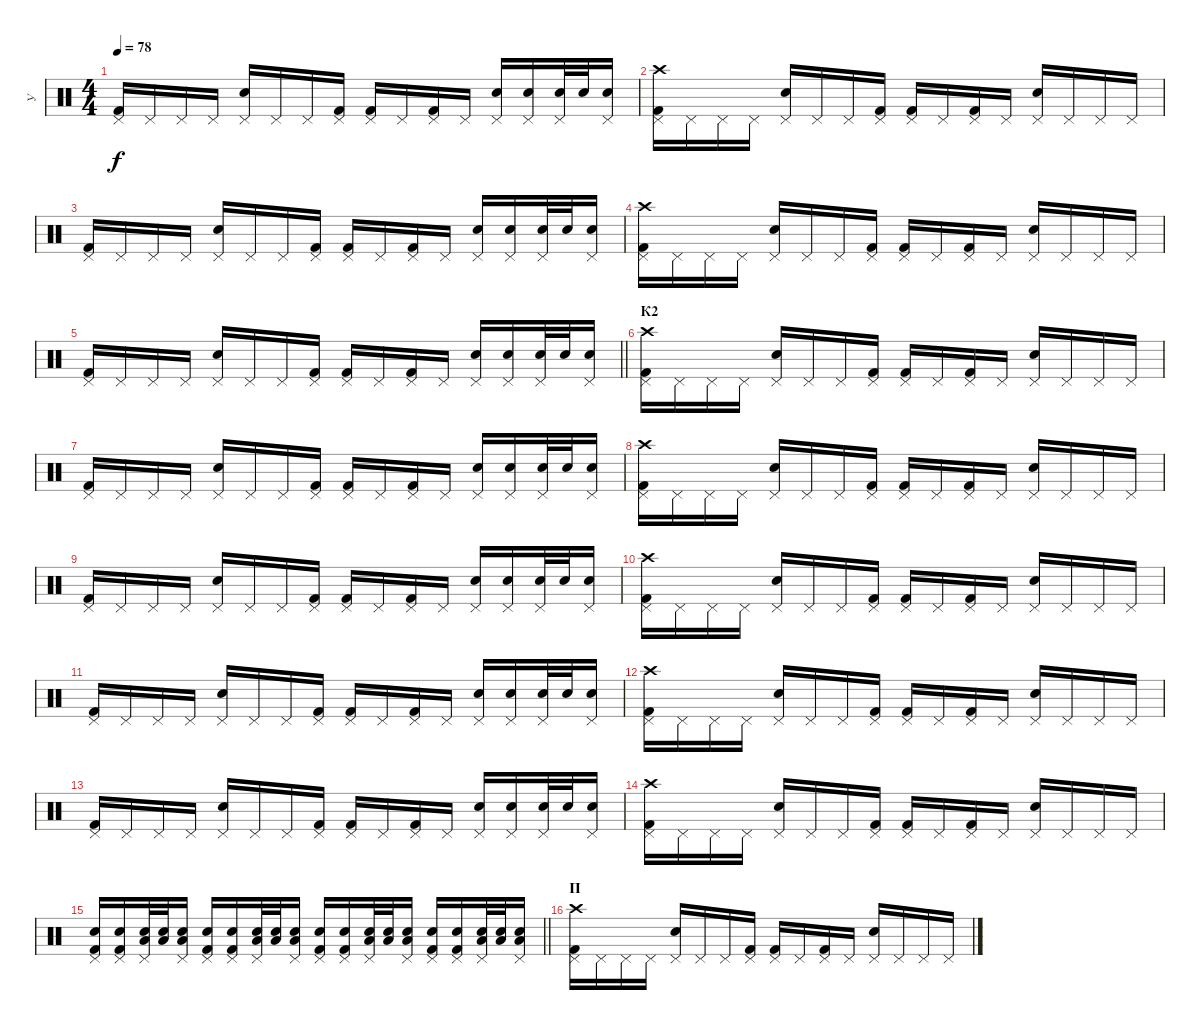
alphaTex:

\track ("У" "У") {instrument percussion}
\staff {score}
\articulation defaults
\ts (4 4)
\tempo 78
\clef neutral
\ks c
("Kick (hit) 2" "Pedal Hi-Hat (hit)").16{dy f} "Pedal Hi-Hat (hit)".16 "Pedal Hi-Hat (hit)".16 "Pedal Hi-Hat (hit)".16 ("Electric Snare (hit)" "Pedal Hi-Hat (hit)").16 "Pedal Hi-Hat (hit)".16 "Pedal Hi-Hat (hit)".16 ("Kick (hit) 2" "Pedal Hi-Hat (hit)").16 ("Kick (hit) 2" "Pedal Hi-Hat (hit)").16 "Pedal Hi-Hat (hit)".16 ("Kick (hit) 2" "Pedal Hi-Hat (hit)").16 "Pedal Hi-Hat (hit)".16 ("Electric Snare (hit)" "Pedal Hi-Hat (hit)").16 ("Electric Snare (hit)" "Pedal Hi-Hat (hit)").16 ("Electric Snare (hit)" "Pedal Hi-Hat (hit)").32 "Electric Snare (hit)".32 ("Electric Snare (hit)" "Pedal Hi-Hat (hit)").16 |
("Crash high (hit)" "Kick (hit) 2" "Pedal Hi-Hat (hit)").16 "Pedal Hi-Hat (hit)".16 "Pedal Hi-Hat (hit)".16 "Pedal Hi-Hat (hit)".16 ("Electric Snare (hit)" "Pedal Hi-Hat (hit)").16 "Pedal Hi-Hat (hit)".16 "Pedal Hi-Hat (hit)".16 ("Kick (hit) 2" "Pedal Hi-Hat (hit)").16 ("Kick (hit) 2" "Pedal Hi-Hat (hit)").16 "Pedal Hi-Hat (hit)".16 ("Kick (hit) 2" "Pedal Hi-Hat (hit)").16 "Pedal Hi-Hat (hit)".16 ("Electric Snare (hit)" "Pedal Hi-Hat (hit)").16 "Pedal Hi-Hat (hit)".16 "Pedal Hi-Hat (hit)".16 "Pedal Hi-Hat (hit)".16 |
("Kick (hit) 2" "Pedal Hi-Hat (hit)").16 "Pedal Hi-Hat (hit)".16 "Pedal Hi-Hat (hit)".16 "Pedal Hi-Hat (hit)".16 ("Electric Snare (hit)" "Pedal Hi-Hat (hit)").16 "Pedal Hi-Hat (hit)".16 "Pedal Hi-Hat (hit)".16 ("Kick (hit) 2" "Pedal Hi-Hat (hit)").16 ("Kick (hit) 2" "Pedal Hi-Hat (hit)").16 "Pedal Hi-Hat (hit)".16 ("Kick (hit) 2" "Pedal Hi-Hat (hit)").16 "Pedal Hi-Hat (hit)".16 ("Electric Snare (hit)" "Pedal Hi-Hat (hit)").16 ("Electric Snare (hit)" "Pedal Hi-Hat (hit)").16 ("Electric Snare (hit)" "Pedal Hi-Hat (hit)").32 "Electric Snare (hit)".32 ("Electric Snare (hit)" "Pedal Hi-Hat (hit)").16 |
("Crash high (hit)" "Kick (hit) 2" "Pedal Hi-Hat (hit)").16 "Pedal Hi-Hat (hit)".16 "Pedal Hi-Hat (hit)".16 "Pedal Hi-Hat (hit)".16 ("Electric Snare (hit)" "Pedal Hi-Hat (hit)").16 "Pedal Hi-Hat (hit)".16 "Pedal Hi-Hat (hit)".16 ("Kick (hit) 2" "Pedal Hi-Hat (hit)").16 ("Kick (hit) 2" "Pedal Hi-Hat (hit)").16 "Pedal Hi-Hat (hit)".16 ("Kick (hit) 2" "Pedal Hi-Hat (hit)").16 "Pedal Hi-Hat (hit)".16 ("Electric Snare (hit)" "Pedal Hi-Hat (hit)").16 "Pedal Hi-Hat (hit)".16 "Pedal Hi-Hat (hit)".16 "Pedal Hi-Hat (hit)".16 |
\barLineRight lightlight
("Kick (hit) 2" "Pedal Hi-Hat (hit)").16 "Pedal Hi-Hat (hit)".16 "Pedal Hi-Hat (hit)".16 "Pedal Hi-Hat (hit)".16 ("Electric Snare (hit)" "Pedal Hi-Hat (hit)").16 "Pedal Hi-Hat (hit)".16 "Pedal Hi-Hat (hit)".16 ("Kick (hit) 2" "Pedal Hi-Hat (hit)").16 ("Kick (hit) 2" "Pedal Hi-Hat (hit)").16 "Pedal Hi-Hat (hit)".16 ("Kick (hit) 2" "Pedal Hi-Hat (hit)").16 "Pedal Hi-Hat (hit)".16 ("Electric Snare (hit)" "Pedal Hi-Hat (hit)").16 ("Electric Snare (hit)" "Pedal Hi-Hat (hit)").16 ("Electric Snare (hit)" "Pedal Hi-Hat (hit)").32 "Electric Snare (hit)".32 ("Electric Snare (hit)" "Pedal Hi-Hat (hit)").16 |
\section ("" "К2")
("Crash high (hit)" "Kick (hit) 2" "Pedal Hi-Hat (hit)").16 "Pedal Hi-Hat (hit)".16 "Pedal Hi-Hat (hit)".16 "Pedal Hi-Hat (hit)".16 ("Electric Snare (hit)" "Pedal Hi-Hat (hit)").16 "Pedal Hi-Hat (hit)".16 "Pedal Hi-Hat (hit)".16 ("Kick (hit) 2" "Pedal Hi-Hat (hit)").16 ("Kick (hit) 2" "Pedal Hi-Hat (hit)").16 "Pedal Hi-Hat (hit)".16 ("Kick (hit) 2" "Pedal Hi-Hat (hit)").16 "Pedal Hi-Hat (hit)".16 ("Electric Snare (hit)" "Pedal Hi-Hat (hit)").16 "Pedal Hi-Hat (hit)".16 "Pedal Hi-Hat (hit)".16 "Pedal Hi-Hat (hit)".16 |
("Kick (hit) 2" "Pedal Hi-Hat (hit)").16 "Pedal Hi-Hat (hit)".16 "Pedal Hi-Hat (hit)".16 "Pedal Hi-Hat (hit)".16 ("Electric Snare (hit)" "Pedal Hi-Hat (hit)").16 "Pedal Hi-Hat (hit)".16 "Pedal Hi-Hat (hit)".16 ("Kick (hit) 2" "Pedal Hi-Hat (hit)").16 ("Kick (hit) 2" "Pedal Hi-Hat (hit)").16 "Pedal Hi-Hat (hit)".16 ("Kick (hit) 2" "Pedal Hi-Hat (hit)").16 "Pedal Hi-Hat (hit)".16 ("Electric Snare (hit)" "Pedal Hi-Hat (hit)").16 ("Electric Snare (hit)" "Pedal Hi-Hat (hit)").16 ("Electric Snare (hit)" "Pedal Hi-Hat (hit)").32 "Electric Snare (hit)".32 ("Electric Snare (hit)" "Pedal Hi-Hat (hit)").16 |
("Crash high (hit)" "Kick (hit) 2" "Pedal Hi-Hat (hit)").16 "Pedal Hi-Hat (hit)".16 "Pedal Hi-Hat (hit)".16 "Pedal Hi-Hat (hit)".16 ("Electric Snare (hit)" "Pedal Hi-Hat (hit)").16 "Pedal Hi-Hat (hit)".16 "Pedal Hi-Hat (hit)".16 ("Kick (hit) 2" "Pedal Hi-Hat (hit)").16 ("Kick (hit) 2" "Pedal Hi-Hat (hit)").16 "Pedal Hi-Hat (hit)".16 ("Kick (hit) 2" "Pedal Hi-Hat (hit)").16 "Pedal Hi-Hat (hit)".16 ("Electric Snare (hit)" "Pedal Hi-Hat (hit)").16 "Pedal Hi-Hat (hit)".16 "Pedal Hi-Hat (hit)".16 "Pedal Hi-Hat (hit)".16 |
("Kick (hit) 2" "Pedal Hi-Hat (hit)").16 "Pedal Hi-Hat (hit)".16 "Pedal Hi-Hat (hit)".16 "Pedal Hi-Hat (hit)".16 ("Electric Snare (hit)" "Pedal Hi-Hat (hit)").16 "Pedal Hi-Hat (hit)".16 "Pedal Hi-Hat (hit)".16 ("Kick (hit) 2" "Pedal Hi-Hat (hit)").16 ("Kick (hit) 2" "Pedal Hi-Hat (hit)").16 "Pedal Hi-Hat (hit)".16 ("Kick (hit) 2" "Pedal Hi-Hat (hit)").16 "Pedal Hi-Hat (hit)".16 ("Electric Snare (hit)" "Pedal Hi-Hat (hit)").16 ("Electric Snare (hit)" "Pedal Hi-Hat (hit)").16 ("Electric Snare (hit)" "Pedal Hi-Hat (hit)").32 "Electric Snare (hit)".32 ("Electric Snare (hit)" "Pedal Hi-Hat (hit)").16 |
("Crash high (hit)" "Kick (hit) 2" "Pedal Hi-Hat (hit)").16 "Pedal Hi-Hat (hit)".16 "Pedal Hi-Hat (hit)".16 "Pedal Hi-Hat (hit)".16 ("Electric Snare (hit)" "Pedal Hi-Hat (hit)").16 "Pedal Hi-Hat (hit)".16 "Pedal Hi-Hat (hit)".16 ("Kick (hit) 2" "Pedal Hi-Hat (hit)").16 ("Kick (hit) 2" "Pedal Hi-Hat (hit)").16 "Pedal Hi-Hat (hit)".16 ("Kick (hit) 2" "Pedal Hi-Hat (hit)").16 "Pedal Hi-Hat (hit)".16 ("Electric Snare (hit)" "Pedal Hi-Hat (hit)").16 "Pedal Hi-Hat (hit)".16 "Pedal Hi-Hat (hit)".16 "Pedal Hi-Hat (hit)".16 |
("Kick (hit) 2" "Pedal Hi-Hat (hit)").16 "Pedal Hi-Hat (hit)".16 "Pedal Hi-Hat (hit)".16 "Pedal Hi-Hat (hit)".16 ("Electric Snare (hit)" "Pedal Hi-Hat (hit)").16 "Pedal Hi-Hat (hit)".16 "Pedal Hi-Hat (hit)".16 ("Kick (hit) 2" "Pedal Hi-Hat (hit)").16 ("Kick (hit) 2" "Pedal Hi-Hat (hit)").16 "Pedal Hi-Hat (hit)".16 ("Kick (hit) 2" "Pedal Hi-Hat (hit)").16 "Pedal Hi-Hat (hit)".16 ("Electric Snare (hit)" "Pedal Hi-Hat (hit)").16 ("Electric Snare (hit)" "Pedal Hi-Hat (hit)").16 ("Electric Snare (hit)" "Pedal Hi-Hat (hit)").32 "Electric Snare (hit)".32 ("Electric Snare (hit)" "Pedal Hi-Hat (hit)").16 |
("Crash high (hit)" "Kick (hit) 2" "Pedal Hi-Hat (hit)").16 "Pedal Hi-Hat (hit)".16 "Pedal Hi-Hat (hit)".16 "Pedal Hi-Hat (hit)".16 ("Electric Snare (hit)" "Pedal Hi-Hat (hit)").16 "Pedal Hi-Hat (hit)".16 "Pedal Hi-Hat (hit)".16 ("Kick (hit) 2" "Pedal Hi-Hat (hit)").16 ("Kick (hit) 2" "Pedal Hi-Hat (hit)").16 "Pedal Hi-Hat (hit)".16 ("Kick (hit) 2" "Pedal Hi-Hat (hit)").16 "Pedal Hi-Hat (hit)".16 ("Electric Snare (hit)" "Pedal Hi-Hat (hit)").16 "Pedal Hi-Hat (hit)".16 "Pedal Hi-Hat (hit)".16 "Pedal Hi-Hat (hit)".16 |
("Kick (hit) 2" "Pedal Hi-Hat (hit)").16 "Pedal Hi-Hat (hit)".16 "Pedal Hi-Hat (hit)".16 "Pedal Hi-Hat (hit)".16 ("Electric Snare (hit)" "Pedal Hi-Hat (hit)").16 "Pedal Hi-Hat (hit)".16 "Pedal Hi-Hat (hit)".16 ("Kick (hit) 2" "Pedal Hi-Hat (hit)").16 ("Kick (hit) 2" "Pedal Hi-Hat (hit)").16 "Pedal Hi-Hat (hit)".16 ("Kick (hit) 2" "Pedal Hi-Hat (hit)").16 "Pedal Hi-Hat (hit)".16 ("Electric Snare (hit)" "Pedal Hi-Hat (hit)").16 ("Electric Snare (hit)" "Pedal Hi-Hat (hit)").16 ("Electric Snare (hit)" "Pedal Hi-Hat (hit)").32 "Electric Snare (hit)".32 ("Electric Snare (hit)" "Pedal Hi-Hat (hit)").16 |
("Crash high (hit)" "Kick (hit) 2" "Pedal Hi-Hat (hit)").16 "Pedal Hi-Hat (hit)".16 "Pedal Hi-Hat (hit)".16 "Pedal Hi-Hat (hit)".16 ("Electric Snare (hit)" "Pedal Hi-Hat (hit)").16 "Pedal Hi-Hat (hit)".16 "Pedal Hi-Hat (hit)".16 ("Kick (hit) 2" "Pedal Hi-Hat (hit)").16 ("Kick (hit) 2" "Pedal Hi-Hat (hit)").16 "Pedal Hi-Hat (hit)".16 ("Kick (hit) 2" "Pedal Hi-Hat (hit)").16 "Pedal Hi-Hat (hit)".16 ("Electric Snare (hit)" "Pedal Hi-Hat (hit)").16 "Pedal Hi-Hat (hit)".16 "Pedal Hi-Hat (hit)".16 "Pedal Hi-Hat (hit)".16 |
\barLineRight lightlight
("Electric Snare (hit)" "Kick (hit) 2" "Pedal Hi-Hat (hit)").16 ("Electric Snare (hit)" "Kick (hit) 2" "Pedal Hi-Hat (hit)").16 ("Electric Snare (hit)" "Low Tom (hit)" "Pedal Hi-Hat (hit)").32 ("Electric Snare (hit)" "Low Tom (hit)").32 ("Electric Snare (hit)" "Low Tom (hit)" "Pedal Hi-Hat (hit)").16 ("Electric Snare (hit)" "Kick (hit) 2" "Pedal Hi-Hat (hit)").16 ("Electric Snare (hit)" "Kick (hit) 2" "Pedal Hi-Hat (hit)").16 ("Electric Snare (hit)" "Low Tom (hit)" "Pedal Hi-Hat (hit)").32 ("Electric Snare (hit)" "Low Tom (hit)").32 ("Electric Snare (hit)" "Low Tom (hit)" "Pedal Hi-Hat (hit)").16 ("Electric Snare (hit)" "Kick (hit) 2" "Pedal Hi-Hat (hit)").16 ("Electric Snare (hit)" "Kick (hit) 2" "Pedal Hi-Hat (hit)").16 ("Electric Snare (hit)" "Low Tom (hit)" "Pedal Hi-Hat (hit)").32 ("Electric Snare (hit)" "Low Tom (hit)").32 ("Electric Snare (hit)" "Low Tom (hit)" "Pedal Hi-Hat (hit)").16 ("Electric Snare (hit)" "Kick (hit) 2" "Pedal Hi-Hat (hit)").16 ("Electric Snare (hit)" "Kick (hit) 2" "Pedal Hi-Hat (hit)").16 ("Electric Snare (hit)" "Low Tom (hit)" "Pedal Hi-Hat (hit)").32 ("Electric Snare (hit)" "Low Tom (hit)").32 ("Electric Snare (hit)" "Low Tom (hit)" "Pedal Hi-Hat (hit)").16 |
\section ("" "П")
("Crash high (hit)" "Kick (hit) 2" "Pedal Hi-Hat (hit)").16 "Pedal Hi-Hat (hit)".16 "Pedal Hi-Hat (hit)".16 "Pedal Hi-Hat (hit)".16 ("Electric Snare (hit)" "Pedal Hi-Hat (hit)").16 "Pedal Hi-Hat (hit)".16 "Pedal Hi-Hat (hit)".16 ("Kick (hit) 2" "Pedal Hi-Hat (hit)").16 ("Kick (hit) 2" "Pedal Hi-Hat (hit)").16 "Pedal Hi-Hat (hit)".16 ("Kick (hit) 2" "Pedal Hi-Hat (hit)").16 "Pedal Hi-Hat (hit)".16 ("Electric Snare (hit)" "Pedal Hi-Hat (hit)").16 "Pedal Hi-Hat (hit)".16 "Pedal Hi-Hat (hit)".16 "Pedal Hi-Hat (hit)".16
